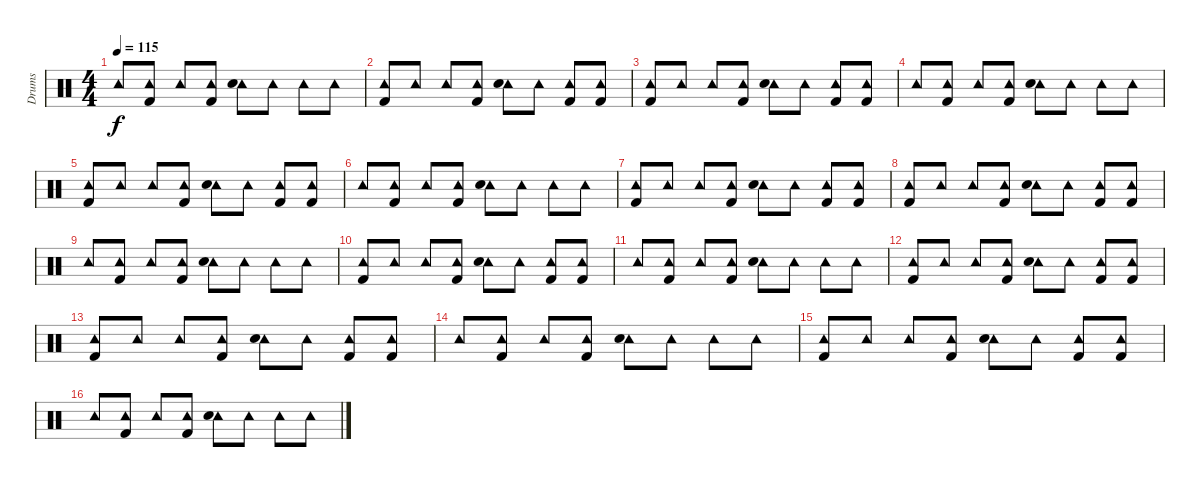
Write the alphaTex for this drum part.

\track ("Drums" "Drums") {instrument percussion}
\staff {score}
\articulation defaults
\ts (4 4)
\tempo 115
\clef neutral
\ks c "Tambourine (hit)".8{dy f}
("Tambourine (hit)" "Kick (hit) 2").8 "Tambourine (hit)".8 ("Tambourine (hit)" "Kick (hit) 2").8 ("Tambourine (hit)" "Snare (hit) 2").8 "Tambourine (hit)".8 "Tambourine (hit)".8 "Tambourine (hit)".8 |
("Tambourine (hit)" "Kick (hit) 2").8 "Tambourine (hit)".8 "Tambourine (hit)".8 ("Tambourine (hit)" "Kick (hit) 2").8 ("Tambourine (hit)" "Snare (hit) 2").8 "Tambourine (hit)".8 ("Tambourine (hit)" "Kick (hit) 2").8 ("Tambourine (hit)" "Kick (hit) 2").8 |
("Tambourine (hit)" "Kick (hit) 2").8 "Tambourine (hit)".8 "Tambourine (hit)".8 ("Tambourine (hit)" "Kick (hit) 2").8 ("Tambourine (hit)" "Snare (hit) 2").8 "Tambourine (hit)".8 ("Tambourine (hit)" "Kick (hit) 2").8 ("Tambourine (hit)" "Kick (hit) 2").8 |
"Tambourine (hit)".8 ("Tambourine (hit)" "Kick (hit) 2").8 "Tambourine (hit)".8 ("Tambourine (hit)" "Kick (hit) 2").8 ("Tambourine (hit)" "Snare (hit) 2").8 "Tambourine (hit)".8 "Tambourine (hit)".8 "Tambourine (hit)".8 |
("Tambourine (hit)" "Kick (hit) 2").8 "Tambourine (hit)".8 "Tambourine (hit)".8 ("Tambourine (hit)" "Kick (hit) 2").8 ("Tambourine (hit)" "Snare (hit) 2").8 "Tambourine (hit)".8 ("Tambourine (hit)" "Kick (hit) 2").8 ("Tambourine (hit)" "Kick (hit) 2").8 |
"Tambourine (hit)".8 ("Tambourine (hit)" "Kick (hit) 2").8 "Tambourine (hit)".8 ("Tambourine (hit)" "Kick (hit) 2").8 ("Tambourine (hit)" "Snare (hit) 2").8 "Tambourine (hit)".8 "Tambourine (hit)".8 "Tambourine (hit)".8 |
("Tambourine (hit)" "Kick (hit) 2").8 "Tambourine (hit)".8 "Tambourine (hit)".8 ("Tambourine (hit)" "Kick (hit) 2").8 ("Tambourine (hit)" "Snare (hit) 2").8 "Tambourine (hit)".8 ("Tambourine (hit)" "Kick (hit) 2").8 ("Tambourine (hit)" "Kick (hit) 2").8 |
("Tambourine (hit)" "Kick (hit) 2").8 "Tambourine (hit)".8 "Tambourine (hit)".8 ("Tambourine (hit)" "Kick (hit) 2").8 ("Tambourine (hit)" "Snare (hit) 2").8 "Tambourine (hit)".8 ("Tambourine (hit)" "Kick (hit) 2").8 ("Tambourine (hit)" "Kick (hit) 2").8 |
"Tambourine (hit)".8 ("Tambourine (hit)" "Kick (hit) 2").8 "Tambourine (hit)".8 ("Tambourine (hit)" "Kick (hit) 2").8 ("Tambourine (hit)" "Snare (hit) 2").8 "Tambourine (hit)".8 "Tambourine (hit)".8 "Tambourine (hit)".8 |
("Tambourine (hit)" "Kick (hit) 2").8 "Tambourine (hit)".8 "Tambourine (hit)".8 ("Tambourine (hit)" "Kick (hit) 2").8 ("Tambourine (hit)" "Snare (hit) 2").8 "Tambourine (hit)".8 ("Tambourine (hit)" "Kick (hit) 2").8 ("Tambourine (hit)" "Kick (hit) 2").8 |
"Tambourine (hit)".8 ("Tambourine (hit)" "Kick (hit) 2").8 "Tambourine (hit)".8 ("Tambourine (hit)" "Kick (hit) 2").8 ("Tambourine (hit)" "Snare (hit) 2").8 "Tambourine (hit)".8 "Tambourine (hit)".8 "Tambourine (hit)".8 |
("Tambourine (hit)" "Kick (hit) 2").8 "Tambourine (hit)".8 "Tambourine (hit)".8 ("Tambourine (hit)" "Kick (hit) 2").8 ("Tambourine (hit)" "Snare (hit) 2").8 "Tambourine (hit)".8 ("Tambourine (hit)" "Kick (hit) 2").8 ("Tambourine (hit)" "Kick (hit) 2").8 |
("Tambourine (hit)" "Kick (hit) 2").8 "Tambourine (hit)".8 "Tambourine (hit)".8 ("Tambourine (hit)" "Kick (hit) 2").8 ("Tambourine (hit)" "Snare (hit) 2").8 "Tambourine (hit)".8 ("Tambourine (hit)" "Kick (hit) 2").8 ("Tambourine (hit)" "Kick (hit) 2").8 |
"Tambourine (hit)".8 ("Tambourine (hit)" "Kick (hit) 2").8 "Tambourine (hit)".8 ("Tambourine (hit)" "Kick (hit) 2").8 ("Tambourine (hit)" "Snare (hit) 2").8 "Tambourine (hit)".8 "Tambourine (hit)".8 "Tambourine (hit)".8 |
("Tambourine (hit)" "Kick (hit) 2").8 "Tambourine (hit)".8 "Tambourine (hit)".8 ("Tambourine (hit)" "Kick (hit) 2").8 ("Tambourine (hit)" "Snare (hit) 2").8 "Tambourine (hit)".8 ("Tambourine (hit)" "Kick (hit) 2").8 ("Tambourine (hit)" "Kick (hit) 2").8 |
"Tambourine (hit)".8 ("Tambourine (hit)" "Kick (hit) 2").8 "Tambourine (hit)".8 ("Tambourine (hit)" "Kick (hit) 2").8 ("Tambourine (hit)" "Snare (hit) 2").8 "Tambourine (hit)".8 "Tambourine (hit)".8 "Tambourine (hit)".8
